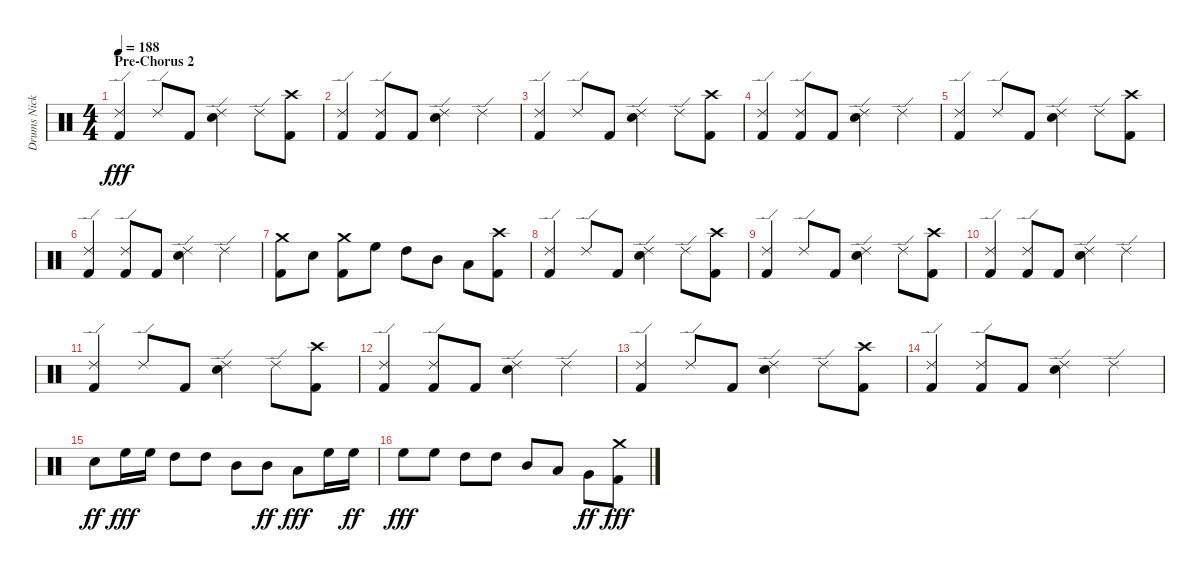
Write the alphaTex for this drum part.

\track ("Drums Nicko McBrain" "Drums Nick") {instrument percussion}
\staff {score}
\articulation defaults
\ts (4 4)
\section ("" "Pre-Chorus 2")
\tempo 188
\clef neutral
\ks c
("Ride (edge) 2" "Kick (hit) 2").4{dy fff} "Ride (edge) 2".8 "Kick (hit) 2".8 ("Ride (edge) 2" "Electric Snare (hit)").4 "Ride (edge) 2".8 ("Crash high (hit)" "Kick (hit) 2").8 |
("Ride (edge) 2" "Kick (hit) 2").4 ("Ride (edge) 2" "Kick (hit) 2").8 "Kick (hit) 2".8 ("Ride (edge) 2" "Electric Snare (hit)").4 "Ride (edge) 2".4 |
("Ride (edge) 2" "Kick (hit) 2").4 "Ride (edge) 2".8 "Kick (hit) 2".8 ("Ride (edge) 2" "Electric Snare (hit)").4 "Ride (edge) 2".8 ("Crash high (hit)" "Kick (hit) 2").8 |
("Ride (edge) 2" "Kick (hit) 2").4 ("Ride (edge) 2" "Kick (hit) 2").8 "Kick (hit) 2".8 ("Ride (edge) 2" "Electric Snare (hit)").4 "Ride (edge) 2".4 |
("Ride (edge) 2" "Kick (hit) 2").4 "Ride (edge) 2".8 "Kick (hit) 2".8 ("Ride (edge) 2" "Electric Snare (hit)").4 "Ride (edge) 2".8 ("Crash high (hit)" "Kick (hit) 2").8 |
("Ride (edge) 2" "Kick (hit) 2").4 ("Ride (edge) 2" "Kick (hit) 2").8 "Kick (hit) 2".8 ("Ride (edge) 2" "Electric Snare (hit)").4 "Ride (edge) 2".4 |
("Crash medium (hit)" "Kick (hit) 2").8 "Electric Snare (hit)".8 ("Crash medium (hit)" "Kick (hit) 2").8 "High Floor Tom (hit)".8 "High Tom (hit)".8 "Mid Tom (hit)".8 "Low Tom (hit)".8 ("Crash high (hit)" "Kick (hit) 2").8 |
("Ride (edge) 2" "Kick (hit) 2").4 "Ride (edge) 2".8 "Kick (hit) 2".8 ("Ride (edge) 2" "Electric Snare (hit)").4 "Ride (edge) 2".8 ("Crash high (hit)" "Kick (hit) 2").8 |
("Ride (edge) 2" "Kick (hit) 2").4 "Ride (edge) 2".8 "Kick (hit) 2".8 ("Ride (edge) 2" "Electric Snare (hit)").4 "Ride (edge) 2".8 ("Crash high (hit)" "Kick (hit) 2").8 |
("Ride (edge) 2" "Kick (hit) 2").4 ("Ride (edge) 2" "Kick (hit) 2").8 "Kick (hit) 2".8 ("Ride (edge) 2" "Electric Snare (hit)").4 "Ride (edge) 2".4 |
("Ride (edge) 2" "Kick (hit) 2").4 "Ride (edge) 2".8 "Kick (hit) 2".8 ("Ride (edge) 2" "Electric Snare (hit)").4 "Ride (edge) 2".8 ("Crash high (hit)" "Kick (hit) 2").8 |
("Ride (edge) 2" "Kick (hit) 2").4 ("Ride (edge) 2" "Kick (hit) 2").8 "Kick (hit) 2".8 ("Ride (edge) 2" "Electric Snare (hit)").4 "Ride (edge) 2".4 |
("Ride (edge) 2" "Kick (hit) 2").4 "Ride (edge) 2".8 "Kick (hit) 2".8 ("Ride (edge) 2" "Electric Snare (hit)").4 "Ride (edge) 2".8 ("Crash high (hit)" "Kick (hit) 2").8 |
("Ride (edge) 2" "Kick (hit) 2").4 ("Ride (edge) 2" "Kick (hit) 2").8 "Kick (hit) 2".8 ("Ride (edge) 2" "Electric Snare (hit)").4 "Ride (edge) 2".4 |
"Electric Snare (hit)".8{dy ff} "High Floor Tom (hit)".16{dy fff} "High Floor Tom (hit)".16 "High Tom (hit)".8 "High Tom (hit)".8 "Mid Tom (hit)".8 "Mid Tom (hit)".8{dy ff} "Low Tom (hit)".8{dy fff} "High Floor Tom (hit)".16 "High Floor Tom (hit)".16{dy ff} |
"High Floor Tom (hit)".8{dy fff} "High Floor Tom (hit)".8 "High Tom (hit)".8 "High Tom (hit)".8 "Mid Tom (hit)".8 "Low Tom (hit)".8 "Very Low Tom (hit)".8{dy ff} ("Crash medium (hit)" "Kick (hit) 2").8{dy fff}
